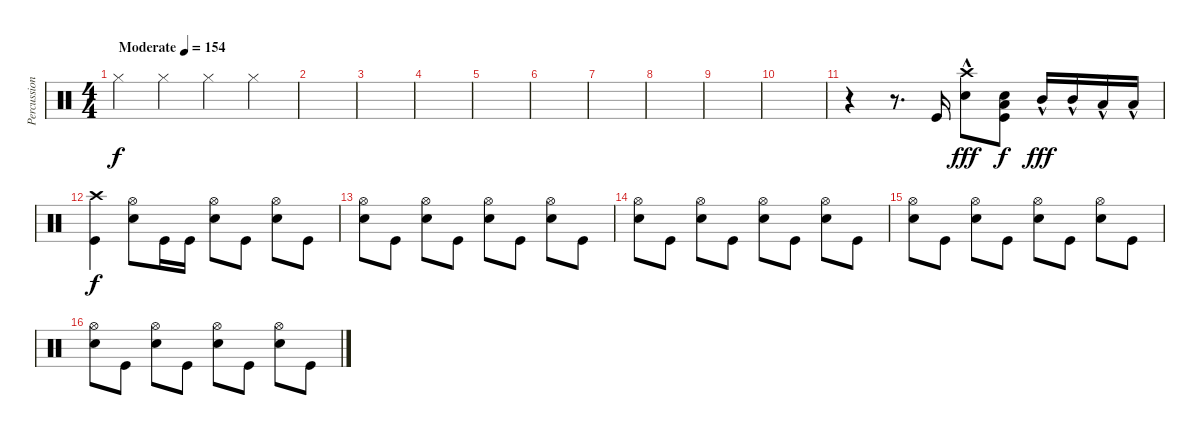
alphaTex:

\track ("Percussions" "Percussion") {instrument percussion}
\staff {score}
\articulation defaults
\ts (4 4)
\tempo (154 "Moderate")
\clef neutral
\ks c "Hi-Hat (closed)".4{dy f} "Hi-Hat (closed)".4 "Hi-Hat (closed)".4 "Hi-Hat (closed)".4
|
|
|
|
|
|
|
|
|
|
r.4 r.8{d} "Kick (hit)".16 ("Snare (hit) 2"{hac} "Crash high (hit)").8{dy fff} ("Kick (hit)" "Low Floor Tom (hit)" "Snare (hit) 2").8{dy f} "Mid Tom (hit)"{hac}.16{dy fff} "Mid Tom (hit)"{hac}.16 "Low Tom (hit)"{hac}.16 "Low Tom (hit)"{hac}.16 |
("Crash high (hit)" "Kick (hit)").4{dy f} ("Snare (hit) 2" "Hi-Hat (open)").8 "Kick (hit)".16 "Kick (hit)".16 ("Snare (hit) 2" "Hi-Hat (open)").8 "Kick (hit)".8 ("Snare (hit) 2" "Hi-Hat (open)").8 "Kick (hit)".8 |
("Snare (hit) 2" "Hi-Hat (open)").8 "Kick (hit)".8 ("Snare (hit) 2" "Hi-Hat (open)").8 "Kick (hit)".8 ("Snare (hit) 2" "Hi-Hat (open)").8 "Kick (hit)".8 ("Snare (hit) 2" "Hi-Hat (open)").8 "Kick (hit)".8 |
("Snare (hit) 2" "Hi-Hat (open)").8 "Kick (hit)".8 ("Snare (hit) 2" "Hi-Hat (open)").8 "Kick (hit)".8 ("Snare (hit) 2" "Hi-Hat (open)").8 "Kick (hit)".8 ("Snare (hit) 2" "Hi-Hat (open)").8 "Kick (hit)".8 |
("Snare (hit) 2" "Hi-Hat (open)").8 "Kick (hit)".8 ("Snare (hit) 2" "Hi-Hat (open)").8 "Kick (hit)".8 ("Snare (hit) 2" "Hi-Hat (open)").8 "Kick (hit)".8 ("Snare (hit) 2" "Hi-Hat (open)").8 "Kick (hit)".8 |
("Snare (hit) 2" "Hi-Hat (open)").8 "Kick (hit)".8 ("Snare (hit) 2" "Hi-Hat (open)").8 "Kick (hit)".8 ("Snare (hit) 2" "Hi-Hat (open)").8 "Kick (hit)".8 ("Snare (hit) 2" "Hi-Hat (open)").8 "Kick (hit)".8
